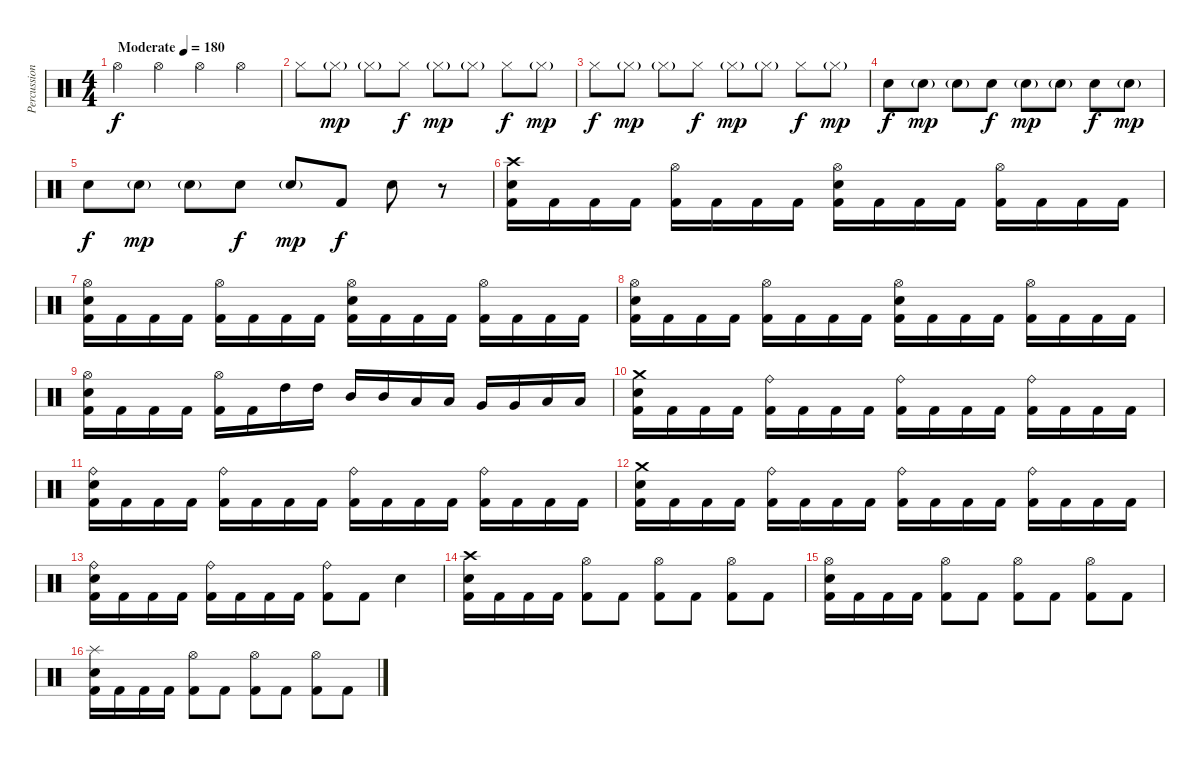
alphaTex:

\track ("Percussion" "Percussion") {instrument percussion}
\staff {score}
\articulation defaults
\ts (4 4)
\tempo (180 "Moderate")
\clef neutral
\ks c "Hi-Hat (open)".4{dy f} "Hi-Hat (open)".4 "Hi-Hat (open)".4 "Hi-Hat (open)".4
|
"Hi-Hat (closed)".8 "Hi-Hat (closed)"{g}.8{dy mp} "Hi-Hat (closed)"{g}.8 "Hi-Hat (closed)".8{dy f} "Hi-Hat (closed)"{g}.8{dy mp} "Hi-Hat (closed)"{g}.8 "Hi-Hat (closed)".8{dy f} "Hi-Hat (closed)"{g}.8{dy mp} |
"Hi-Hat (closed)".8{dy f} "Hi-Hat (closed)"{g}.8{dy mp} "Hi-Hat (closed)"{g}.8 "Hi-Hat (closed)".8{dy f} "Hi-Hat (closed)"{g}.8{dy mp} "Hi-Hat (closed)"{g}.8 "Hi-Hat (closed)".8{dy f} "Hi-Hat (closed)"{g}.8{dy mp} |
"Snare (hit) 2".8{dy f} "Snare (hit) 2"{g}.8{dy mp} "Snare (hit) 2"{g}.8 "Snare (hit) 2".8{dy f} "Snare (hit) 2"{g}.8{dy mp} "Snare (hit) 2"{g}.8 "Snare (hit) 2".8{dy f} "Snare (hit) 2"{g}.8{dy mp} |
"Snare (hit) 2".8{dy f} "Snare (hit) 2"{g}.8{dy mp} "Snare (hit) 2"{g}.8 "Snare (hit) 2".8{dy f} "Snare (hit) 2"{g}.8{dy mp} "Kick (hit) 2".8{dy f} "Snare (hit) 2".8 r.8 |
("Crash high (hit)" "Snare (hit) 2" "Kick (hit) 2").16 "Kick (hit) 2".16 "Kick (hit) 2".16 "Kick (hit) 2".16 ("Hi-Hat (open)" "Kick (hit) 2").16 "Kick (hit) 2".16 "Kick (hit) 2".16 "Kick (hit) 2".16 ("Hi-Hat (open)" "Snare (hit) 2" "Kick (hit) 2").16 "Kick (hit) 2".16 "Kick (hit) 2".16 "Kick (hit) 2".16 ("Hi-Hat (open)" "Kick (hit) 2").16 "Kick (hit) 2".16 "Kick (hit) 2".16 "Kick (hit) 2".16 |
("Hi-Hat (open)" "Snare (hit) 2" "Kick (hit) 2").16 "Kick (hit) 2".16 "Kick (hit) 2".16 "Kick (hit) 2".16 ("Hi-Hat (open)" "Kick (hit) 2").16 "Kick (hit) 2".16 "Kick (hit) 2".16 "Kick (hit) 2".16 ("Hi-Hat (open)" "Snare (hit) 2" "Kick (hit) 2").16 "Kick (hit) 2".16 "Kick (hit) 2".16 "Kick (hit) 2".16 ("Hi-Hat (open)" "Kick (hit) 2").16 "Kick (hit) 2".16 "Kick (hit) 2".16 "Kick (hit) 2".16 |
("Hi-Hat (open)" "Snare (hit) 2" "Kick (hit) 2").16 "Kick (hit) 2".16 "Kick (hit) 2".16 "Kick (hit) 2".16 ("Hi-Hat (open)" "Kick (hit) 2").16 "Kick (hit) 2".16 "Kick (hit) 2".16 "Kick (hit) 2".16 ("Hi-Hat (open)" "Snare (hit) 2" "Kick (hit) 2").16 "Kick (hit) 2".16 "Kick (hit) 2".16 "Kick (hit) 2".16 ("Hi-Hat (open)" "Kick (hit) 2").16 "Kick (hit) 2".16 "Kick (hit) 2".16 "Kick (hit) 2".16 |
("Hi-Hat (open)" "Snare (hit) 2" "Kick (hit) 2").16 "Kick (hit) 2".16 "Kick (hit) 2".16 "Kick (hit) 2".16 ("Hi-Hat (open)" "Kick (hit) 2").16 "Kick (hit) 2".16 "High Tom (hit)".16 "High Tom (hit)".16 "Mid Tom (hit)".16 "Mid Tom (hit)".16 "Low Tom (hit)".16 "Low Tom (hit)".16 "Very Low Tom (hit)".16 "Very Low Tom (hit)".16 "Low Floor Tom (hit)".16 "Low Floor Tom (hit)".16 |
("Crash medium (hit)" "Snare (hit) 2" "Kick (hit) 2").16 "Kick (hit) 2".16 "Kick (hit) 2".16 "Kick (hit) 2".16 ("Ride (bell)" "Kick (hit) 2").16 "Kick (hit) 2".16 "Kick (hit) 2".16 "Kick (hit) 2".16 ("Ride (bell)" "Kick (hit) 2").16 "Kick (hit) 2".16 "Kick (hit) 2".16 "Kick (hit) 2".16 ("Ride (bell)" "Kick (hit) 2").16 "Kick (hit) 2".16 "Kick (hit) 2".16 "Kick (hit) 2".16 |
("Ride (bell)" "Snare (hit) 2" "Kick (hit) 2").16 "Kick (hit) 2".16 "Kick (hit) 2".16 "Kick (hit) 2".16 ("Ride (bell)" "Kick (hit) 2").16 "Kick (hit) 2".16 "Kick (hit) 2".16 "Kick (hit) 2".16 ("Ride (bell)" "Kick (hit) 2").16 "Kick (hit) 2".16 "Kick (hit) 2".16 "Kick (hit) 2".16 ("Ride (bell)" "Kick (hit) 2").16 "Kick (hit) 2".16 "Kick (hit) 2".16 "Kick (hit) 2".16 |
("Crash medium (hit)" "Snare (hit) 2" "Kick (hit) 2").16 "Kick (hit) 2".16 "Kick (hit) 2".16 "Kick (hit) 2".16 ("Ride (bell)" "Kick (hit) 2").16 "Kick (hit) 2".16 "Kick (hit) 2".16 "Kick (hit) 2".16 ("Ride (bell)" "Kick (hit) 2").16 "Kick (hit) 2".16 "Kick (hit) 2".16 "Kick (hit) 2".16 ("Ride (bell)" "Kick (hit) 2").16 "Kick (hit) 2".16 "Kick (hit) 2".16 "Kick (hit) 2".16 |
("Ride (bell)" "Snare (hit) 2" "Kick (hit) 2").16 "Kick (hit) 2".16 "Kick (hit) 2".16 "Kick (hit) 2".16 ("Ride (bell)" "Kick (hit) 2").16 "Kick (hit) 2".16 "Kick (hit) 2".16 "Kick (hit) 2".16 ("Ride (bell)" "Kick (hit) 2").8 "Kick (hit) 2".8 "Snare (hit) 2".4 |
("Crash high (hit)" "Snare (hit) 2" "Kick (hit) 2").16 "Kick (hit) 2".16 "Kick (hit) 2".16 "Kick (hit) 2".16 ("Hi-Hat (open)" "Kick (hit) 2").8 "Kick (hit) 2".8 ("Hi-Hat (open)" "Kick (hit) 2").8 "Kick (hit) 2".8 ("Hi-Hat (open)" "Kick (hit) 2").8 "Kick (hit) 2".8 |
("Hi-Hat (open)" "Snare (hit) 2" "Kick (hit) 2").16 "Kick (hit) 2".16 "Kick (hit) 2".16 "Kick (hit) 2".16 ("Hi-Hat (open)" "Kick (hit) 2").8 "Kick (hit) 2".8 ("Hi-Hat (open)" "Kick (hit) 2").8 "Kick (hit) 2".8 ("Hi-Hat (open)" "Kick (hit) 2").8 "Kick (hit) 2".8 |
("Splash (hit)" "Snare (hit) 2" "Kick (hit) 2").16 "Kick (hit) 2".16 "Kick (hit) 2".16 "Kick (hit) 2".16 ("Hi-Hat (open)" "Kick (hit) 2").8 "Kick (hit) 2".8 ("Hi-Hat (open)" "Kick (hit) 2").8 "Kick (hit) 2".8 ("Hi-Hat (open)" "Kick (hit) 2").8 "Kick (hit) 2".8
